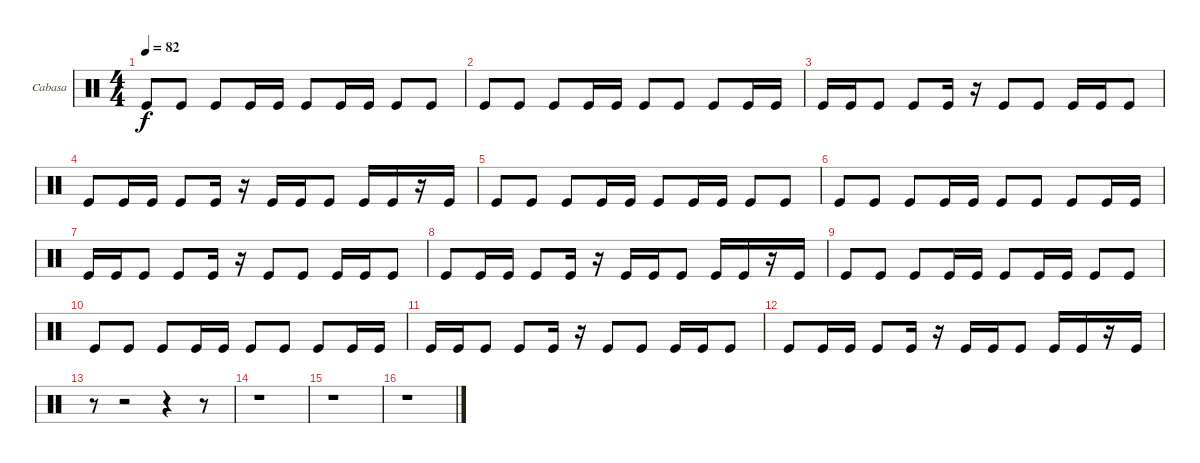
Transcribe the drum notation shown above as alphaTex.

\bracketExtendMode groupsimilarinstruments
\firstSystemTrackNameOrientation horizontal
\otherSystemsTrackNameOrientation horizontal
\track ("Cabasa" "Cabasa") {instrument percussion}
\staff {score}
\articulation defaults
\ts (4 4)
\tempo 82
\clef neutral
\ks c "Kick (hit)".8{dy f} "Kick (hit)".8 "Kick (hit)".8 "Kick (hit)".16 "Kick (hit)".16 "Kick (hit)".8 "Kick (hit)".16 "Kick (hit)".16 "Kick (hit)".8 "Kick (hit)".8
|
"Kick (hit)".8 "Kick (hit)".8 "Kick (hit)".8 "Kick (hit)".16 "Kick (hit)".16 "Kick (hit)".8 "Kick (hit)".8 "Kick (hit)".8 "Kick (hit)".16 "Kick (hit)".16 |
"Kick (hit)".16 "Kick (hit)".16 "Kick (hit)".8 "Kick (hit)".8 "Kick (hit)".16 r.16 "Kick (hit)".8 "Kick (hit)".8 "Kick (hit)".16 "Kick (hit)".16 "Kick (hit)".8 |
"Kick (hit)".8 "Kick (hit)".16 "Kick (hit)".16 "Kick (hit)".8 "Kick (hit)".16 r.16 "Kick (hit)".16 "Kick (hit)".16 "Kick (hit)".8 "Kick (hit)".16 "Kick (hit)".16 r.16 "Kick (hit)".16 |
"Kick (hit)".8 "Kick (hit)".8 "Kick (hit)".8 "Kick (hit)".16 "Kick (hit)".16 "Kick (hit)".8 "Kick (hit)".16 "Kick (hit)".16 "Kick (hit)".8 "Kick (hit)".8 |
"Kick (hit)".8 "Kick (hit)".8 "Kick (hit)".8 "Kick (hit)".16 "Kick (hit)".16 "Kick (hit)".8 "Kick (hit)".8 "Kick (hit)".8 "Kick (hit)".16 "Kick (hit)".16 |
"Kick (hit)".16 "Kick (hit)".16 "Kick (hit)".8 "Kick (hit)".8 "Kick (hit)".16 r.16 "Kick (hit)".8 "Kick (hit)".8 "Kick (hit)".16 "Kick (hit)".16 "Kick (hit)".8 |
"Kick (hit)".8 "Kick (hit)".16 "Kick (hit)".16 "Kick (hit)".8 "Kick (hit)".16 r.16 "Kick (hit)".16 "Kick (hit)".16 "Kick (hit)".8 "Kick (hit)".16 "Kick (hit)".16 r.16 "Kick (hit)".16 |
"Kick (hit)".8 "Kick (hit)".8 "Kick (hit)".8 "Kick (hit)".16 "Kick (hit)".16 "Kick (hit)".8 "Kick (hit)".16 "Kick (hit)".16 "Kick (hit)".8 "Kick (hit)".8 |
"Kick (hit)".8 "Kick (hit)".8 "Kick (hit)".8 "Kick (hit)".16 "Kick (hit)".16 "Kick (hit)".8 "Kick (hit)".8 "Kick (hit)".8 "Kick (hit)".16 "Kick (hit)".16 |
"Kick (hit)".16 "Kick (hit)".16 "Kick (hit)".8 "Kick (hit)".8 "Kick (hit)".16 r.16 "Kick (hit)".8 "Kick (hit)".8 "Kick (hit)".16 "Kick (hit)".16 "Kick (hit)".8 |
"Kick (hit)".8 "Kick (hit)".16 "Kick (hit)".16 "Kick (hit)".8 "Kick (hit)".16 r.16 "Kick (hit)".16 "Kick (hit)".16 "Kick (hit)".8 "Kick (hit)".16 "Kick (hit)".16 r.16 "Kick (hit)".16 |
r.8 r.2 r.4 r.8 |
r.1 |
r.1 |
r.1
